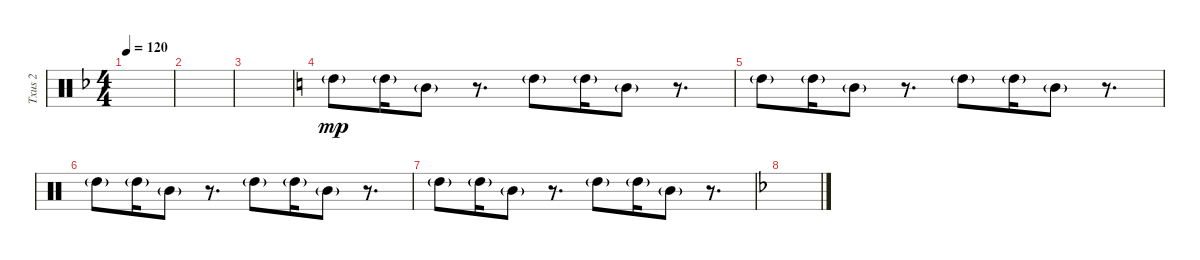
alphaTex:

\track ("Txus 2" "Txus 2") {instrument percussion}
\staff {score}
\articulation defaults
\ts (4 4)
\tempo 120
\clef neutral
\ks dminor
|
|
|
\ks c "High Tom (hit)"{g}.8{dy mp} "High Tom (hit)"{g}.16 "Mid Tom (hit)"{g}.8
r.8{d} "High Tom (hit)"{g}.8 "High Tom (hit)"{g}.16 "Mid Tom (hit)"{g}.8 r.8{d} |
"High Tom (hit)"{g}.8 "High Tom (hit)"{g}.16 "Mid Tom (hit)"{g}.8 r.8{d} "High Tom (hit)"{g}.8 "High Tom (hit)"{g}.16 "Mid Tom (hit)"{g}.8 r.8{d} |
"High Tom (hit)"{g}.8 "High Tom (hit)"{g}.16 "Mid Tom (hit)"{g}.8 r.8{d} "High Tom (hit)"{g}.8 "High Tom (hit)"{g}.16 "Mid Tom (hit)"{g}.8 r.8{d} |
"High Tom (hit)"{g}.8 "High Tom (hit)"{g}.16 "Mid Tom (hit)"{g}.8 r.8{d} "High Tom (hit)"{g}.8 "High Tom (hit)"{g}.16 "Mid Tom (hit)"{g}.8 r.8{d} |
\ks dminor
